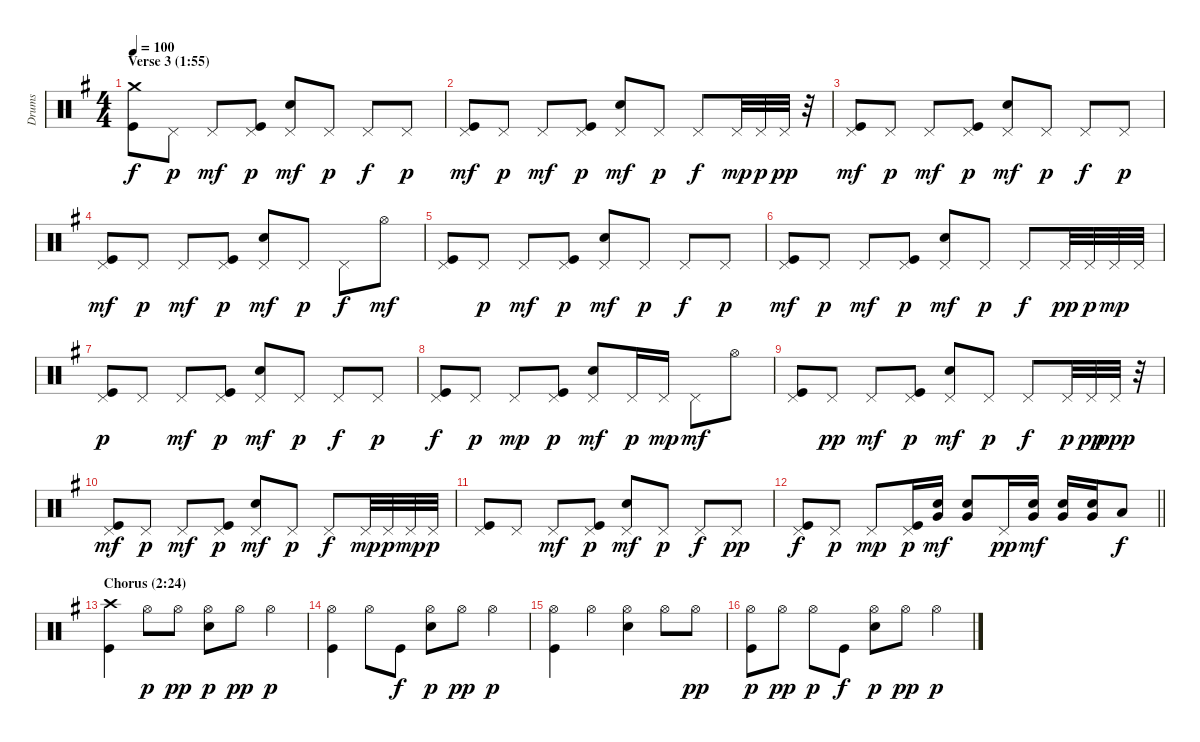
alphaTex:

\track ("Drums" "Drums") {instrument percussion}
\staff {score}
\articulation defaults
\ts (4 4)
\section ("" "Verse 3 (1:55)")
\tempo 100
\clef neutral
\ks g
("Crash medium (hit)" "Kick (hit)").8{dy f} "Pedal Hi-Hat (hit)".8{dy p} "Pedal Hi-Hat (hit)".8{dy mf} ("Pedal Hi-Hat (hit)" "Kick (hit)").8{dy p} ("Pedal Hi-Hat (hit)" "Snare (hit) 2").8{dy mf} "Pedal Hi-Hat (hit)".8{dy p} "Pedal Hi-Hat (hit)".8{dy f} "Pedal Hi-Hat (hit)".8{dy p} |
("Pedal Hi-Hat (hit)" "Kick (hit)").8{dy mf} "Pedal Hi-Hat (hit)".8{dy p} "Pedal Hi-Hat (hit)".8{dy mf} ("Pedal Hi-Hat (hit)" "Kick (hit)").8{dy p} ("Pedal Hi-Hat (hit)" "Snare (hit) 2").8{dy mf} "Pedal Hi-Hat (hit)".8{dy p} "Pedal Hi-Hat (hit)".8{dy f} "Pedal Hi-Hat (hit)".32{dy mp} "Pedal Hi-Hat (hit)".32{dy p} "Pedal Hi-Hat (hit)".32{dy pp} r.32 |
("Pedal Hi-Hat (hit)" "Kick (hit)").8{dy mf} "Pedal Hi-Hat (hit)".8{dy p} "Pedal Hi-Hat (hit)".8{dy mf} ("Pedal Hi-Hat (hit)" "Kick (hit)").8{dy p} ("Pedal Hi-Hat (hit)" "Snare (hit) 2").8{dy mf} "Pedal Hi-Hat (hit)".8{dy p} "Pedal Hi-Hat (hit)".8{dy f} "Pedal Hi-Hat (hit)".8{dy p} |
("Pedal Hi-Hat (hit)" "Kick (hit)").8{dy mf} "Pedal Hi-Hat (hit)".8{dy p} "Pedal Hi-Hat (hit)".8{dy mf} ("Pedal Hi-Hat (hit)" "Kick (hit)").8{dy p} ("Pedal Hi-Hat (hit)" "Snare (hit) 2").8{dy mf} "Pedal Hi-Hat (hit)".8{dy p} "Pedal Hi-Hat (hit)".8{dy f} "Hi-Hat (open)".8{dy mf} |
("Pedal Hi-Hat (hit)" "Kick (hit)").8 "Pedal Hi-Hat (hit)".8{dy p} "Pedal Hi-Hat (hit)".8{dy mf} ("Pedal Hi-Hat (hit)" "Kick (hit)").8{dy p} ("Pedal Hi-Hat (hit)" "Snare (hit) 2").8{dy mf} "Pedal Hi-Hat (hit)".8{dy p} "Pedal Hi-Hat (hit)".8{dy f} "Pedal Hi-Hat (hit)".8{dy p} |
("Pedal Hi-Hat (hit)" "Kick (hit)").8{dy mf} "Pedal Hi-Hat (hit)".8{dy p} "Pedal Hi-Hat (hit)".8{dy mf} ("Pedal Hi-Hat (hit)" "Kick (hit)").8{dy p} ("Pedal Hi-Hat (hit)" "Snare (hit) 2").8{dy mf} "Pedal Hi-Hat (hit)".8{dy p} "Pedal Hi-Hat (hit)".8{dy f} "Pedal Hi-Hat (hit)".32{dy pp} "Pedal Hi-Hat (hit)".32{dy p} "Pedal Hi-Hat (hit)".32{dy mp} "Pedal Hi-Hat (hit)".32 |
("Pedal Hi-Hat (hit)" "Kick (hit)").8{dy p} "Pedal Hi-Hat (hit)".8 "Pedal Hi-Hat (hit)".8{dy mf} ("Pedal Hi-Hat (hit)" "Kick (hit)").8{dy p} ("Pedal Hi-Hat (hit)" "Snare (hit) 2").8{dy mf} "Pedal Hi-Hat (hit)".8{dy p} "Pedal Hi-Hat (hit)".8{dy f} "Pedal Hi-Hat (hit)".8{dy p} |
("Pedal Hi-Hat (hit)" "Kick (hit)").8{dy f} "Pedal Hi-Hat (hit)".8{dy p} "Pedal Hi-Hat (hit)".8{dy mp} ("Pedal Hi-Hat (hit)" "Kick (hit)").8{dy p} ("Pedal Hi-Hat (hit)" "Snare (hit) 2").8{dy mf} "Pedal Hi-Hat (hit)".16{dy p} "Pedal Hi-Hat (hit)".16{dy mp} "Pedal Hi-Hat (hit)".8{dy mf} "Hi-Hat (open)".8 |
("Pedal Hi-Hat (hit)" "Kick (hit)").8 "Pedal Hi-Hat (hit)".8{dy pp} "Pedal Hi-Hat (hit)".8{dy mf} ("Pedal Hi-Hat (hit)" "Kick (hit)").8{dy p} ("Pedal Hi-Hat (hit)" "Snare (hit) 2").8{dy mf} "Pedal Hi-Hat (hit)".8{dy p} "Pedal Hi-Hat (hit)".8{dy f} "Pedal Hi-Hat (hit)".32{dy p} "Pedal Hi-Hat (hit)".32{dy pp} "Pedal Hi-Hat (hit)".32{dy ppp} r.32 |
("Pedal Hi-Hat (hit)" "Kick (hit)").8{dy mf} "Pedal Hi-Hat (hit)".8{dy p} "Pedal Hi-Hat (hit)".8{dy mf} ("Pedal Hi-Hat (hit)" "Kick (hit)").8{dy p} ("Pedal Hi-Hat (hit)" "Snare (hit) 2").8{dy mf} "Pedal Hi-Hat (hit)".8{dy p} "Pedal Hi-Hat (hit)".8{dy f} "Pedal Hi-Hat (hit)".32{dy mp} "Pedal Hi-Hat (hit)".32{dy p} "Pedal Hi-Hat (hit)".32{dy mp} "Pedal Hi-Hat (hit)".32{dy p} |
("Pedal Hi-Hat (hit)" "Kick (hit)").8 "Pedal Hi-Hat (hit)".8 "Pedal Hi-Hat (hit)".8{dy mf} ("Pedal Hi-Hat (hit)" "Kick (hit)").8{dy p} ("Pedal Hi-Hat (hit)" "Snare (hit) 2").8{dy mf} "Pedal Hi-Hat (hit)".8{dy p} "Pedal Hi-Hat (hit)".8{dy f} "Pedal Hi-Hat (hit)".8{dy pp} |
\barLineRight lightlight
("Pedal Hi-Hat (hit)" "Kick (hit)").8{dy f} "Pedal Hi-Hat (hit)".8{dy p} "Pedal Hi-Hat (hit)".8{dy mp} ("Pedal Hi-Hat (hit)" "Kick (hit)").16{dy p} ("Very Low Tom (hit)" "Snare (hit) 2").16{dy mf} ("Very Low Tom (hit)" "Snare (hit) 2").8 "Pedal Hi-Hat (hit)".16{dy pp} ("Very Low Tom (hit)" "Snare (hit) 2").16{dy mf} ("Very Low Tom (hit)" "Snare (hit) 2").16 ("Very Low Tom (hit)" "Snare (hit) 2").16 "Low Floor Tom (hit)".8{dy f} |
\section ("" "Chorus (2:24)")
("Crash high (hit)" "Kick (hit)").4 "Hi-Hat (open)".8{dy p} "Hi-Hat (open)".8{dy pp} ("Hi-Hat (open)" "Snare (hit) 2").8{dy p} "Hi-Hat (open)".8{dy pp} "Hi-Hat (open)".4{dy p} |
("Hi-Hat (open)" "Kick (hit)").4 "Hi-Hat (open)".8 "Kick (hit)".8{dy f} ("Hi-Hat (open)" "Snare (hit) 2").8{dy p} "Hi-Hat (open)".8{dy pp} "Hi-Hat (open)".4{dy p} |
("Hi-Hat (open)" "Kick (hit)").4 "Hi-Hat (open)".4 ("Hi-Hat (open)" "Snare (hit) 2").4 "Hi-Hat (open)".8 "Hi-Hat (open)".8{dy pp} |
("Hi-Hat (open)" "Kick (hit)").8{dy p} "Hi-Hat (open)".8{dy pp} "Hi-Hat (open)".8{dy p} "Kick (hit)".8{dy f} ("Hi-Hat (open)" "Snare (hit) 2").8{dy p} "Hi-Hat (open)".8{dy pp} "Hi-Hat (open)".4{dy p}
